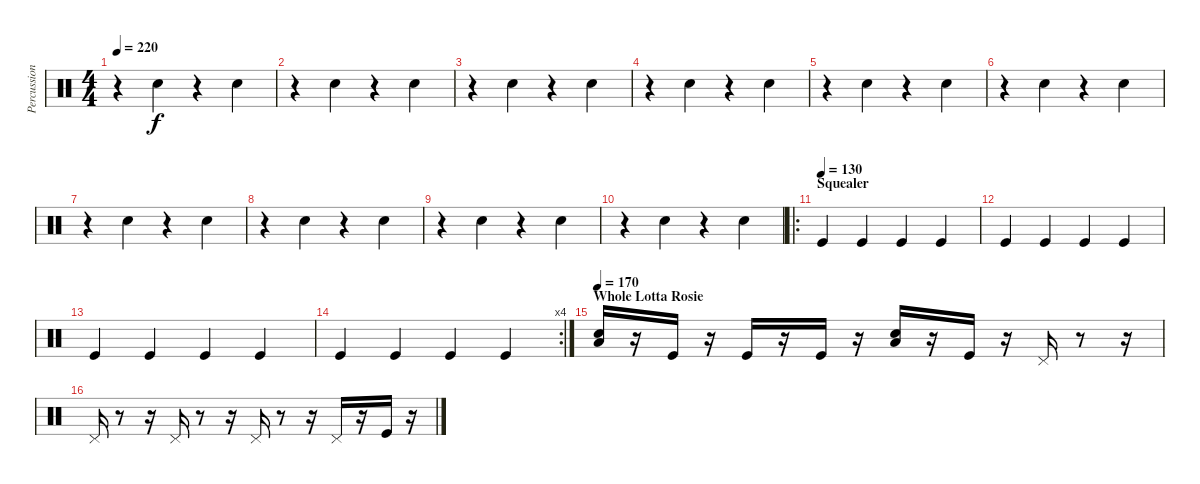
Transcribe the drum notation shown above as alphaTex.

\track ("Percussions" "Percussion") {instrument percussion}
\staff {score}
\articulation defaults
\ts (4 4)
\tempo 220
\clef neutral
\ks c
r.4{dy f} "Snare (hit) 2".4 r.4 "Snare (hit) 2".4 |
r.4 "Snare (hit) 2".4 r.4 "Snare (hit) 2".4 |
r.4 "Snare (hit) 2".4 r.4 "Snare (hit) 2".4 |
r.4 "Snare (hit) 2".4 r.4 "Snare (hit) 2".4 |
r.4 "Snare (hit) 2".4 r.4 "Snare (hit) 2".4 |
r.4 "Snare (hit) 2".4 r.4 "Snare (hit) 2".4 |
r.4 "Snare (hit) 2".4 r.4 "Snare (hit) 2".4 |
r.4 "Snare (hit) 2".4 r.4 "Snare (hit) 2".4 |
r.4 "Snare (hit) 2".4 r.4 "Snare (hit) 2".4 |
r.4 "Snare (hit) 2".4 r.4 "Snare (hit) 2".4 |
\ro
\section ("" "Squealer")
\tempo (130)
"Kick (hit)".4 "Kick (hit)".4 "Kick (hit)".4 "Kick (hit)".4 |
"Kick (hit)".4 "Kick (hit)".4 "Kick (hit)".4 "Kick (hit)".4 |
"Kick (hit)".4 "Kick (hit)".4 "Kick (hit)".4 "Kick (hit)".4 |
\rc 4 "Kick (hit)".4 "Kick (hit)".4 "Kick (hit)".4 "Kick (hit)".4
|
\section ("" "Whole Lotta Rosie")
\tempo 170
("Snare (hit) 2" "Low Tom (hit)").16 r.16 "Kick (hit)".16 r.16 "Kick (hit)".16 r.16 "Kick (hit)".16 r.16 ("Snare (hit) 2" "Low Tom (hit)").16 r.16 "Kick (hit)".16 r.16 "Pedal Hi-Hat (hit)".16 r.8 r.16 |
"Pedal Hi-Hat (hit)".16 r.8 r.16 "Pedal Hi-Hat (hit)".16 r.8 r.16 "Pedal Hi-Hat (hit)".16 r.8 r.16 "Pedal Hi-Hat (hit)".16 r.16 "Kick (hit)".16 r.16
